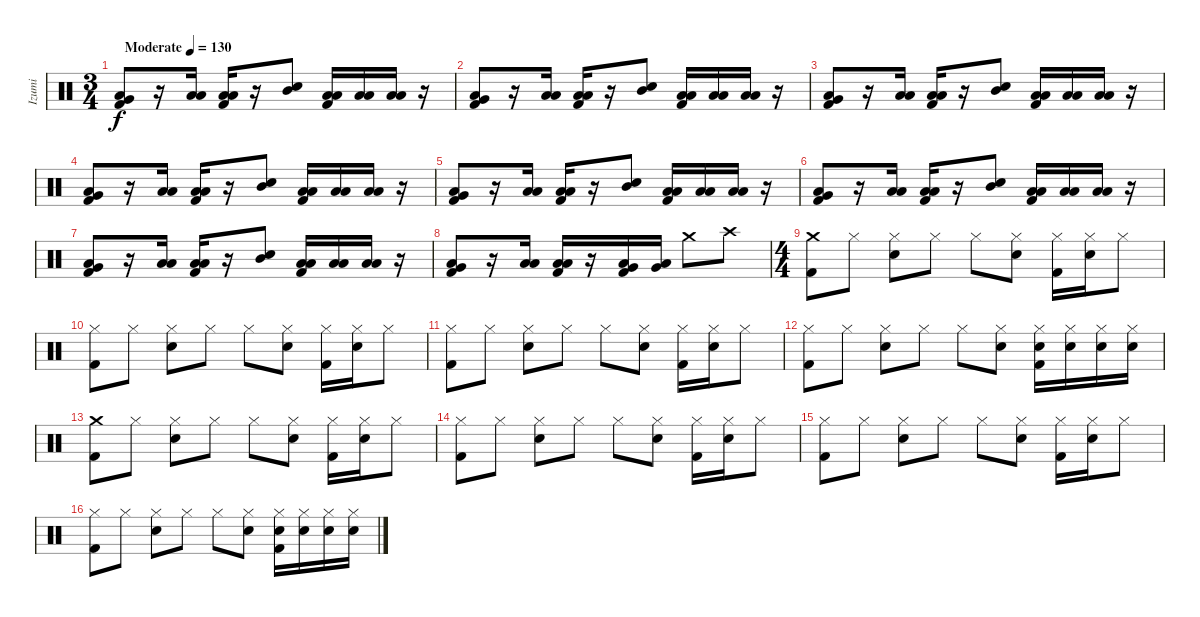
\track ("Izumi" "Izumi") {instrument percussion}
\staff {score}
\articulation defaults
\ts (3 4)
\tempo (130 "Moderate")
\clef neutral
\ks c
("Kick (hit) 2" "Very Low Tom (hit)" "Low Tom (hit)").8{dy f volume 3} r.16 ("Low Floor Tom (hit)" "Low Tom (hit)").16 ("Kick (hit) 2" "Low Floor Tom (hit)" "Low Tom (hit)").16 r.16 ("Snare (hit) 2" "Mid Tom (hit)").8 ("Kick (hit) 2" "Low Floor Tom (hit)" "Low Tom (hit)").16 ("Low Floor Tom (hit)" "Low Tom (hit)").16 ("Low Floor Tom (hit)" "Low Tom (hit)").16 r.16 |
("Kick (hit) 2" "Very Low Tom (hit)" "Low Tom (hit)").8{volume 6} r.16 ("Low Floor Tom (hit)" "Low Tom (hit)").16 ("Kick (hit) 2" "Low Floor Tom (hit)" "Low Tom (hit)").16 r.16 ("Snare (hit) 2" "Mid Tom (hit)").8 ("Kick (hit) 2" "Low Floor Tom (hit)" "Low Tom (hit)").16 ("Low Floor Tom (hit)" "Low Tom (hit)").16 ("Low Floor Tom (hit)" "Low Tom (hit)").16 r.16 |
("Kick (hit) 2" "Very Low Tom (hit)" "Low Tom (hit)").8{volume 9} r.16 ("Low Floor Tom (hit)" "Low Tom (hit)").16 ("Kick (hit) 2" "Low Floor Tom (hit)" "Low Tom (hit)").16 r.16 ("Snare (hit) 2" "Mid Tom (hit)").8 ("Kick (hit) 2" "Low Floor Tom (hit)" "Low Tom (hit)").16 ("Low Floor Tom (hit)" "Low Tom (hit)").16 ("Low Floor Tom (hit)" "Low Tom (hit)").16 r.16 |
("Kick (hit) 2" "Very Low Tom (hit)" "Low Tom (hit)").8{volume 13} r.16 ("Low Floor Tom (hit)" "Low Tom (hit)").16 ("Kick (hit) 2" "Low Floor Tom (hit)" "Low Tom (hit)").16 r.16 ("Snare (hit) 2" "Mid Tom (hit)").8 ("Kick (hit) 2" "Low Floor Tom (hit)" "Low Tom (hit)").16 ("Low Floor Tom (hit)" "Low Tom (hit)").16 ("Low Floor Tom (hit)" "Low Tom (hit)").16 r.16 |
("Kick (hit) 2" "Very Low Tom (hit)" "Low Tom (hit)").8 r.16 ("Low Floor Tom (hit)" "Low Tom (hit)").16 ("Kick (hit) 2" "Low Floor Tom (hit)" "Low Tom (hit)").16 r.16 ("Snare (hit) 2" "Mid Tom (hit)").8 ("Kick (hit) 2" "Low Floor Tom (hit)" "Low Tom (hit)").16 ("Low Floor Tom (hit)" "Low Tom (hit)").16 ("Low Floor Tom (hit)" "Low Tom (hit)").16 r.16 |
("Kick (hit) 2" "Very Low Tom (hit)" "Low Tom (hit)").8 r.16 ("Low Floor Tom (hit)" "Low Tom (hit)").16 ("Kick (hit) 2" "Low Floor Tom (hit)" "Low Tom (hit)").16 r.16 ("Snare (hit) 2" "Mid Tom (hit)").8 ("Kick (hit) 2" "Low Floor Tom (hit)" "Low Tom (hit)").16 ("Low Floor Tom (hit)" "Low Tom (hit)").16 ("Low Floor Tom (hit)" "Low Tom (hit)").16 r.16 |
("Kick (hit) 2" "Very Low Tom (hit)" "Low Tom (hit)").8 r.16 ("Low Floor Tom (hit)" "Low Tom (hit)").16 ("Kick (hit) 2" "Low Floor Tom (hit)" "Low Tom (hit)").16 r.16 ("Snare (hit) 2" "Mid Tom (hit)").8 ("Kick (hit) 2" "Low Floor Tom (hit)" "Low Tom (hit)").16 ("Low Floor Tom (hit)" "Low Tom (hit)").16 ("Low Floor Tom (hit)" "Low Tom (hit)").16 r.16 |
("Kick (hit) 2" "Very Low Tom (hit)" "Low Tom (hit)").8 r.16 ("Low Floor Tom (hit)" "Low Tom (hit)").16 ("Kick (hit) 2" "Low Floor Tom (hit)" "Low Tom (hit)").16 r.16 ("Kick (hit) 2" "Very Low Tom (hit)" "Low Tom (hit)").16 ("Very Low Tom (hit)" "Low Tom (hit)").16 "Crash medium (hit)".8 "Crash high (hit)".8 |
\ts (4 4)
("Kick (hit) 2" "Crash medium (hit)").8 "Hi-Hat (closed)".8 ("Snare (hit) 2" "Hi-Hat (closed)").8 "Hi-Hat (closed)".8 "Hi-Hat (closed)".8 ("Snare (hit) 2" "Hi-Hat (closed)").8 ("Kick (hit) 2" "Hi-Hat (closed)").16 ("Snare (hit) 2" "Hi-Hat (closed)").16 "Hi-Hat (closed)".8 |
("Kick (hit) 2" "Hi-Hat (closed)").8 "Hi-Hat (closed)".8 ("Snare (hit) 2" "Hi-Hat (closed)").8 "Hi-Hat (closed)".8 "Hi-Hat (closed)".8 ("Snare (hit) 2" "Hi-Hat (closed)").8 ("Kick (hit) 2" "Hi-Hat (closed)").16 ("Snare (hit) 2" "Hi-Hat (closed)").16 "Hi-Hat (closed)".8 |
("Kick (hit) 2" "Hi-Hat (closed)").8 "Hi-Hat (closed)".8 ("Snare (hit) 2" "Hi-Hat (closed)").8 "Hi-Hat (closed)".8 "Hi-Hat (closed)".8 ("Snare (hit) 2" "Hi-Hat (closed)").8 ("Kick (hit) 2" "Hi-Hat (closed)").16 ("Snare (hit) 2" "Hi-Hat (closed)").16 "Hi-Hat (closed)".8 |
("Kick (hit) 2" "Hi-Hat (closed)").8 "Hi-Hat (closed)".8 ("Snare (hit) 2" "Hi-Hat (closed)").8 "Hi-Hat (closed)".8 "Hi-Hat (closed)".8 ("Snare (hit) 2" "Hi-Hat (closed)").8 ("Kick (hit) 2" "Snare (hit) 2" "Hi-Hat (closed)").16 ("Snare (hit) 2" "Hi-Hat (closed)").16 ("Snare (hit) 2" "Hi-Hat (closed)").16 ("Snare (hit) 2" "Hi-Hat (closed)").16 |
("Kick (hit) 2" "Crash medium (hit)").8 "Hi-Hat (closed)".8 ("Snare (hit) 2" "Hi-Hat (closed)").8 "Hi-Hat (closed)".8 "Hi-Hat (closed)".8 ("Snare (hit) 2" "Hi-Hat (closed)").8 ("Kick (hit) 2" "Hi-Hat (closed)").16 ("Snare (hit) 2" "Hi-Hat (closed)").16 "Hi-Hat (closed)".8 |
("Kick (hit) 2" "Hi-Hat (closed)").8 "Hi-Hat (closed)".8 ("Snare (hit) 2" "Hi-Hat (closed)").8 "Hi-Hat (closed)".8 "Hi-Hat (closed)".8 ("Snare (hit) 2" "Hi-Hat (closed)").8 ("Kick (hit) 2" "Hi-Hat (closed)").16 ("Snare (hit) 2" "Hi-Hat (closed)").16 "Hi-Hat (closed)".8 |
("Kick (hit) 2" "Hi-Hat (closed)").8 "Hi-Hat (closed)".8 ("Snare (hit) 2" "Hi-Hat (closed)").8 "Hi-Hat (closed)".8 "Hi-Hat (closed)".8 ("Snare (hit) 2" "Hi-Hat (closed)").8 ("Kick (hit) 2" "Hi-Hat (closed)").16 ("Snare (hit) 2" "Hi-Hat (closed)").16 "Hi-Hat (closed)".8 |
("Kick (hit) 2" "Hi-Hat (closed)").8 "Hi-Hat (closed)".8 ("Snare (hit) 2" "Hi-Hat (closed)").8 "Hi-Hat (closed)".8 "Hi-Hat (closed)".8 ("Snare (hit) 2" "Hi-Hat (closed)").8 ("Kick (hit) 2" "Snare (hit) 2" "Hi-Hat (closed)").16 ("Snare (hit) 2" "Hi-Hat (closed)").16 ("Snare (hit) 2" "Hi-Hat (closed)").16 ("Snare (hit) 2" "Hi-Hat (closed)").16
